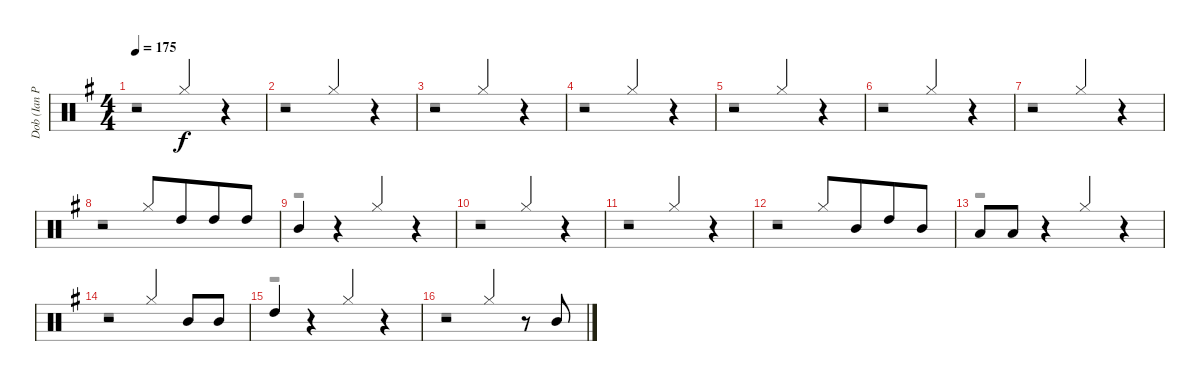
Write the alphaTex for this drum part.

\track ("Dob (Ian Paice)" "Dob (Ian P") {instrument percussion}
\staff {score}
\articulation defaults
\voice
\ts (4 4)
\tempo 175
\clef neutral
\ks g
r.2{dy f} "Hi-Hat (closed)".4 r.4 |
r.2 "Hi-Hat (closed)".4 r.4 |
r.2 "Hi-Hat (closed)".4 r.4 |
r.2 "Hi-Hat (closed)".4 r.4 |
r.2 "Hi-Hat (closed)".4 r.4 |
r.2 "Hi-Hat (closed)".4 r.4 |
r.2 "Hi-Hat (closed)".4 r.4 |
r.2 "Hi-Hat (closed)".8 "High Tom (hit)".8{beam merge} "High Tom (hit)".8 "High Tom (hit)".8 |
"Mid Tom (hit)".4 r.4 "Hi-Hat (closed)".4 r.4 |
r.2 "Hi-Hat (closed)".4 r.4 |
r.2 "Hi-Hat (closed)".4 r.4 |
r.2 "Hi-Hat (closed)".8 "Mid Tom (hit)".8{beam merge} "High Tom (hit)".8 "Mid Tom (hit)".8 |
"Low Tom (hit)".8 "Low Tom (hit)".8 r.4 "Hi-Hat (closed)".4 r.4 |
r.2 "Hi-Hat (closed)".4 "Mid Tom (hit)".8 "Mid Tom (hit)".8 |
"High Tom (hit)".4 r.4 "Hi-Hat (closed)".4 r.4 |
r.2 "Hi-Hat (closed)".4 r.8 "Mid Tom (hit)".8
\voice
\clef neutral
\ottava regular
\simile none
\ks g
r.1{dy f} |
r.1 |
r.1 |
r.1 |
r.1 |
r.1 |
r.1 |
r.1 |
r.1 |
r.1 |
r.1 |
r.1 |
r.1 |
r.1 |
r.1 |
r.1
